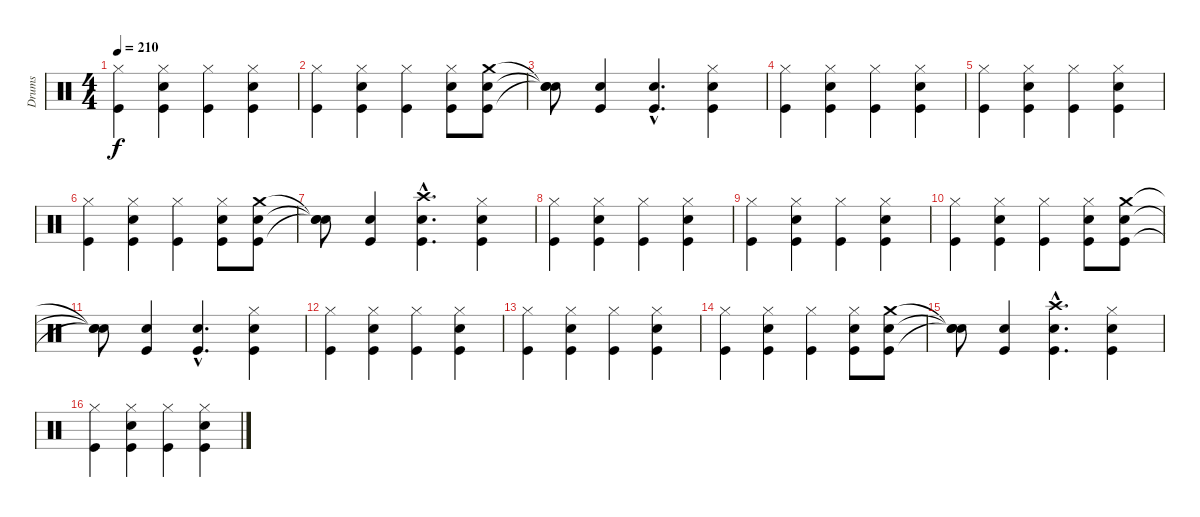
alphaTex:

\track ("Drums" "Drums") {instrument percussion}
\staff {score}
\articulation defaults
\ts (4 4)
\tempo 210
\clef neutral
\ks c
("Hi-Hat (closed)" "Kick (hit)").4{dy f} ("Hi-Hat (closed)" "Snare (hit) 2" "Kick (hit)").4 ("Hi-Hat (closed)" "Kick (hit)").4 ("Hi-Hat (closed)" "Snare (hit) 2" "Kick (hit)").4 |
("Hi-Hat (closed)" "Kick (hit)").4 ("Hi-Hat (closed)" "Snare (hit) 2" "Kick (hit)").4 ("Hi-Hat (closed)" "Kick (hit)").4 ("Hi-Hat (closed)" "Snare (hit) 2" "Kick (hit)").8 ("Crash medium (hit)" "Snare (hit) 2" "Kick (hit)").8 |
("Snare (hit)"{t} "Snare (hit)"{t} "Snare (hit)"{t}).8 ("Snare (hit) 2" "Kick (hit)").4 ("Snare (hit) 2"{hac} "Kick (hit)"{hac}).4{d} ("Hi-Hat (closed)" "Snare (hit) 2" "Kick (hit)").4 |
("Hi-Hat (closed)" "Kick (hit)").4 ("Hi-Hat (closed)" "Snare (hit) 2" "Kick (hit)").4 ("Hi-Hat (closed)" "Kick (hit)").4 ("Hi-Hat (closed)" "Snare (hit) 2" "Kick (hit)").4 |
("Hi-Hat (closed)" "Kick (hit)").4 ("Hi-Hat (closed)" "Snare (hit) 2" "Kick (hit)").4 ("Hi-Hat (closed)" "Kick (hit)").4 ("Hi-Hat (closed)" "Snare (hit) 2" "Kick (hit)").4 |
("Hi-Hat (closed)" "Kick (hit)").4 ("Hi-Hat (closed)" "Snare (hit) 2" "Kick (hit)").4 ("Hi-Hat (closed)" "Kick (hit)").4 ("Hi-Hat (closed)" "Snare (hit) 2" "Kick (hit)").8 ("Crash medium (hit)" "Snare (hit) 2" "Kick (hit)").8 |
("Snare (hit)"{t} "Snare (hit)"{t} "Snare (hit)"{t}).8 ("Snare (hit) 2" "Kick (hit)").4 ("Crash high (hit)"{hac} "Snare (hit) 2"{hac} "Kick (hit)"{hac}).4{d} ("Hi-Hat (closed)" "Snare (hit) 2" "Kick (hit)").4 |
("Hi-Hat (closed)" "Kick (hit)").4 ("Hi-Hat (closed)" "Snare (hit) 2" "Kick (hit)").4 ("Hi-Hat (closed)" "Kick (hit)").4 ("Hi-Hat (closed)" "Snare (hit) 2" "Kick (hit)").4 |
("Hi-Hat (closed)" "Kick (hit)").4 ("Hi-Hat (closed)" "Snare (hit) 2" "Kick (hit)").4 ("Hi-Hat (closed)" "Kick (hit)").4 ("Hi-Hat (closed)" "Snare (hit) 2" "Kick (hit)").4 |
("Hi-Hat (closed)" "Kick (hit)").4 ("Hi-Hat (closed)" "Snare (hit) 2" "Kick (hit)").4 ("Hi-Hat (closed)" "Kick (hit)").4 ("Hi-Hat (closed)" "Snare (hit) 2" "Kick (hit)").8 ("Crash medium (hit)" "Snare (hit) 2" "Kick (hit)").8 |
("Snare (hit)"{t} "Snare (hit)"{t} "Snare (hit)"{t}).8 ("Snare (hit) 2" "Kick (hit)").4 ("Snare (hit) 2"{hac} "Kick (hit)"{hac}).4{d} ("Hi-Hat (closed)" "Snare (hit) 2" "Kick (hit)").4 |
("Hi-Hat (closed)" "Kick (hit)").4 ("Hi-Hat (closed)" "Snare (hit) 2" "Kick (hit)").4 ("Hi-Hat (closed)" "Kick (hit)").4 ("Hi-Hat (closed)" "Snare (hit) 2" "Kick (hit)").4 |
("Hi-Hat (closed)" "Kick (hit)").4 ("Hi-Hat (closed)" "Snare (hit) 2" "Kick (hit)").4 ("Hi-Hat (closed)" "Kick (hit)").4 ("Hi-Hat (closed)" "Snare (hit) 2" "Kick (hit)").4 |
("Hi-Hat (closed)" "Kick (hit)").4 ("Hi-Hat (closed)" "Snare (hit) 2" "Kick (hit)").4 ("Hi-Hat (closed)" "Kick (hit)").4 ("Hi-Hat (closed)" "Snare (hit) 2" "Kick (hit)").8 ("Crash medium (hit)" "Snare (hit) 2" "Kick (hit)").8 |
("Snare (hit)"{t} "Snare (hit)"{t} "Snare (hit)"{t}).8 ("Snare (hit) 2" "Kick (hit)").4 ("Crash high (hit)"{hac} "Snare (hit) 2"{hac} "Kick (hit)"{hac}).4{d} ("Hi-Hat (closed)" "Snare (hit) 2" "Kick (hit)").4 |
("Hi-Hat (closed)" "Kick (hit)").4 ("Hi-Hat (closed)" "Snare (hit) 2" "Kick (hit)").4 ("Hi-Hat (closed)" "Kick (hit)").4 ("Hi-Hat (closed)" "Snare (hit) 2" "Kick (hit)").4
